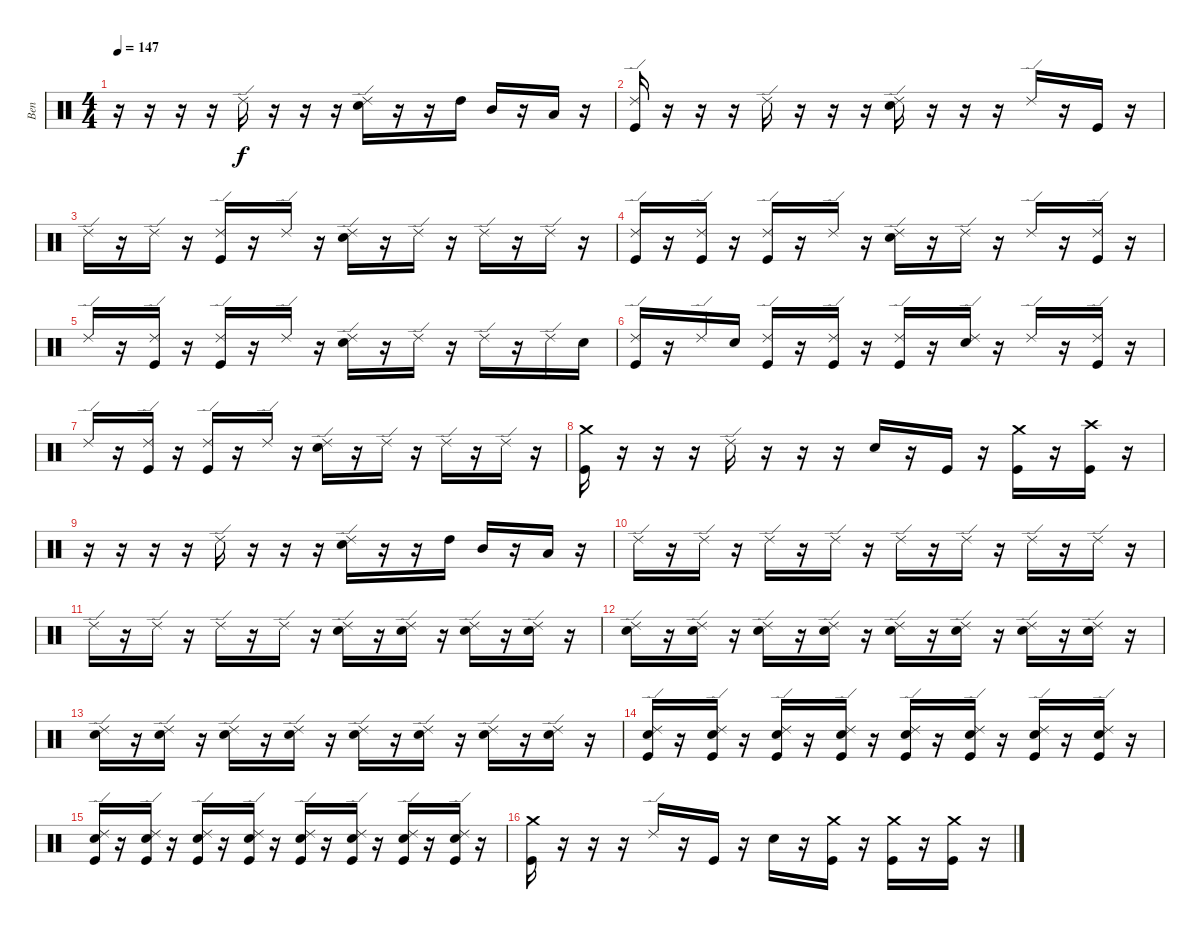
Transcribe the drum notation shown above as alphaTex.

\track ("Ben" "Ben") {instrument percussion}
\staff {score}
\articulation defaults
\ts (4 4)
\tempo 147
\clef neutral
\ks c
r.16{dy f} r.16 r.16 r.16 "Ride (edge) 2".16 r.16 r.16 r.16 ("Ride (edge) 2" "Electric Snare (hit)").16 r.16 r.16 "High Tom (hit)".16 "Mid Tom (hit)".16 r.16 "Low Tom (hit)".16 r.16 |
("Ride (edge) 2" "Kick (hit)").16 r.16 r.16 r.16 "Ride (edge) 2".16 r.16 r.16 r.16 ("Ride (edge) 2" "Electric Snare (hit)").16 r.16 r.16 r.16 "Ride (edge) 2".16 r.16 "Kick (hit)".16 r.16 |
"Ride (edge) 2".16 r.16 "Ride (edge) 2".16 r.16 ("Ride (edge) 2" "Kick (hit)").16 r.16 "Ride (edge) 2".16 r.16 ("Ride (edge) 2" "Electric Snare (hit)").16 r.16 "Ride (edge) 2".16 r.16 "Ride (edge) 2".16 r.16 "Ride (edge) 2".16 r.16 |
("Ride (edge) 2" "Kick (hit)").16 r.16 ("Ride (edge) 2" "Kick (hit)").16 r.16 ("Ride (edge) 2" "Kick (hit)").16 r.16 "Ride (edge) 2".16 r.16 ("Ride (edge) 2" "Electric Snare (hit)").16 r.16 "Ride (edge) 2".16 r.16 "Ride (edge) 2".16 r.16 ("Ride (edge) 2" "Kick (hit)").16 r.16 |
"Ride (edge) 2".16 r.16 ("Ride (edge) 2" "Kick (hit)").16 r.16 ("Ride (edge) 2" "Kick (hit)").16 r.16 "Ride (edge) 2".16 r.16 ("Ride (edge) 2" "Electric Snare (hit)").16 r.16 "Ride (edge) 2".16 r.16 "Ride (edge) 2".16 r.16 "Ride (edge) 2".16 "Electric Snare (hit)".16 |
("Ride (edge) 2" "Kick (hit)").16 r.16 "Ride (edge) 2".16 "Electric Snare (hit)".16 ("Ride (edge) 2" "Kick (hit)").16 r.16 ("Ride (edge) 2" "Kick (hit)").16 r.16 ("Ride (edge) 2" "Kick (hit)").16 r.16 ("Ride (edge) 2" "Electric Snare (hit)").16 r.16 "Ride (edge) 2".16 r.16 ("Ride (edge) 2" "Kick (hit)").16 r.16 |
"Ride (edge) 2".16 r.16 ("Ride (edge) 2" "Kick (hit)").16 r.16 ("Ride (edge) 2" "Kick (hit)").16 r.16 "Ride (edge) 2".16 r.16 ("Ride (edge) 2" "Electric Snare (hit)").16 r.16 "Ride (edge) 2".16 r.16 "Ride (edge) 2".16 r.16 "Ride (edge) 2".16 r.16 |
("Crash medium (hit)" "Kick (hit)").16 r.16 r.16 r.16 "Ride (edge) 2".16 r.16 r.16 r.16 "Electric Snare (hit)".16 r.16 "Kick (hit)".16 r.16 ("Crash medium (hit)" "Kick (hit)").16 r.16 ("Crash high (hit)" "Kick (hit)").16 r.16 |
r.16 r.16 r.16 r.16 "Ride (edge) 2".16 r.16 r.16 r.16 ("Ride (edge) 2" "Electric Snare (hit)").16 r.16 r.16 "High Tom (hit)".16 "Mid Tom (hit)".16 r.16 "Low Tom (hit)".16 r.16 |
"Ride (edge) 2".16{volume 3} r.16 "Ride (edge) 2".16 r.16 "Ride (edge) 2".16{volume 6} r.16 "Ride (edge) 2".16 r.16 "Ride (edge) 2".16{volume 9} r.16 "Ride (edge) 2".16 r.16 "Ride (edge) 2".16{volume 12} r.16 "Ride (edge) 2".16 r.16 |
"Ride (edge) 2".16{volume 16} r.16 "Ride (edge) 2".16 r.16 "Ride (edge) 2".16 r.16 "Ride (edge) 2".16 r.16 ("Ride (edge) 2" "Electric Snare (hit)").16 r.16 ("Ride (edge) 2" "Electric Snare (hit)").16 r.16 ("Ride (edge) 2" "Electric Snare (hit)").16 r.16 ("Ride (edge) 2" "Electric Snare (hit)").16 r.16 |
("Ride (edge) 2" "Electric Snare (hit)").16 r.16 ("Ride (edge) 2" "Electric Snare (hit)").16 r.16 ("Ride (edge) 2" "Electric Snare (hit)").16 r.16 ("Ride (edge) 2" "Electric Snare (hit)").16 r.16 ("Ride (edge) 2" "Electric Snare (hit)").16 r.16 ("Ride (edge) 2" "Electric Snare (hit)").16 r.16 ("Ride (edge) 2" "Electric Snare (hit)").16 r.16 ("Ride (edge) 2" "Electric Snare (hit)").16 r.16 |
("Ride (edge) 2" "Electric Snare (hit)").16 r.16 ("Ride (edge) 2" "Electric Snare (hit)").16 r.16 ("Ride (edge) 2" "Electric Snare (hit)").16 r.16 ("Ride (edge) 2" "Electric Snare (hit)").16 r.16 ("Ride (edge) 2" "Electric Snare (hit)").16 r.16 ("Ride (edge) 2" "Electric Snare (hit)").16 r.16 ("Ride (edge) 2" "Electric Snare (hit)").16 r.16 ("Ride (edge) 2" "Electric Snare (hit)").16 r.16 |
("Ride (edge) 2" "Electric Snare (hit)" "Kick (hit)").16 r.16 ("Ride (edge) 2" "Electric Snare (hit)" "Kick (hit)").16 r.16 ("Ride (edge) 2" "Electric Snare (hit)" "Kick (hit)").16 r.16 ("Ride (edge) 2" "Electric Snare (hit)" "Kick (hit)").16 r.16 ("Ride (edge) 2" "Electric Snare (hit)" "Kick (hit)").16 r.16 ("Ride (edge) 2" "Electric Snare (hit)" "Kick (hit)").16 r.16 ("Ride (edge) 2" "Electric Snare (hit)" "Kick (hit)").16 r.16 ("Ride (edge) 2" "Electric Snare (hit)" "Kick (hit)").16 r.16 |
("Ride (edge) 2" "Electric Snare (hit)" "Kick (hit)").16 r.16 ("Ride (edge) 2" "Electric Snare (hit)" "Kick (hit)").16 r.16 ("Ride (edge) 2" "Electric Snare (hit)" "Kick (hit)").16 r.16 ("Ride (edge) 2" "Electric Snare (hit)" "Kick (hit)").16 r.16 ("Ride (edge) 2" "Electric Snare (hit)" "Kick (hit)").16 r.16 ("Ride (edge) 2" "Electric Snare (hit)" "Kick (hit)").16 r.16 ("Ride (edge) 2" "Electric Snare (hit)" "Kick (hit)").16 r.16 ("Ride (edge) 2" "Electric Snare (hit)" "Kick (hit)").16 r.16 |
("Crash medium (hit)" "Kick (hit)").16 r.16 r.16 r.16 "Ride (edge) 2".16 r.16 "Kick (hit)".16 r.16 "Electric Snare (hit)".16 r.16 ("Crash medium (hit)" "Kick (hit)").16 r.16 ("Crash medium (hit)" "Kick (hit)").16 r.16 ("Crash medium (hit)" "Kick (hit)").16 r.16
